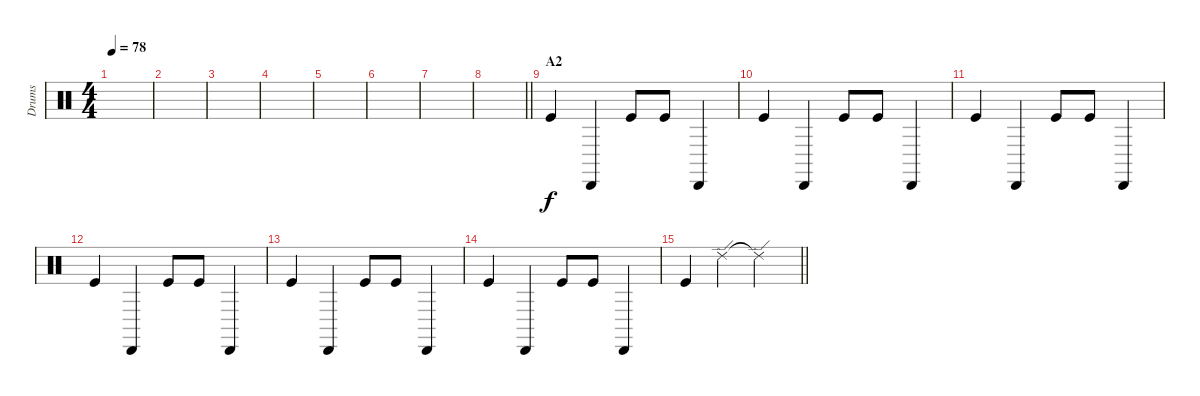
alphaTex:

\track ("Drums" "Drums") {instrument percussion}
\staff {score}
\articulation defaults
\ts (4 4)
\tempo 78
\clef neutral
\ks c
|
|
|
|
|
|
|
\barLineRight lightlight
|
\section ("" "A2")
"Kick (hit)".4 "Cabasa (hit)".4 "Kick (hit)".8 "Kick (hit)".8 "Cabasa (hit)".4 |
"Kick (hit)".4 "Cabasa (hit)".4 "Kick (hit)".8 "Kick (hit)".8 "Cabasa (hit)".4 |
"Kick (hit)".4 "Cabasa (hit)".4 "Kick (hit)".8 "Kick (hit)".8 "Cabasa (hit)".4 |
"Kick (hit)".4 "Cabasa (hit)".4 "Kick (hit)".8 "Kick (hit)".8 "Cabasa (hit)".4 |
"Kick (hit)".4 "Cabasa (hit)".4 "Kick (hit)".8 "Kick (hit)".8 "Cabasa (hit)".4 |
"Kick (hit)".4 "Cabasa (hit)".4 "Kick (hit)".8 "Kick (hit)".8 "Cabasa (hit)".4 |
\barLineRight lightlight "Kick (hit)".4 "Ride (edge) 2".4 "Ride (edge) 2"{t}.2
